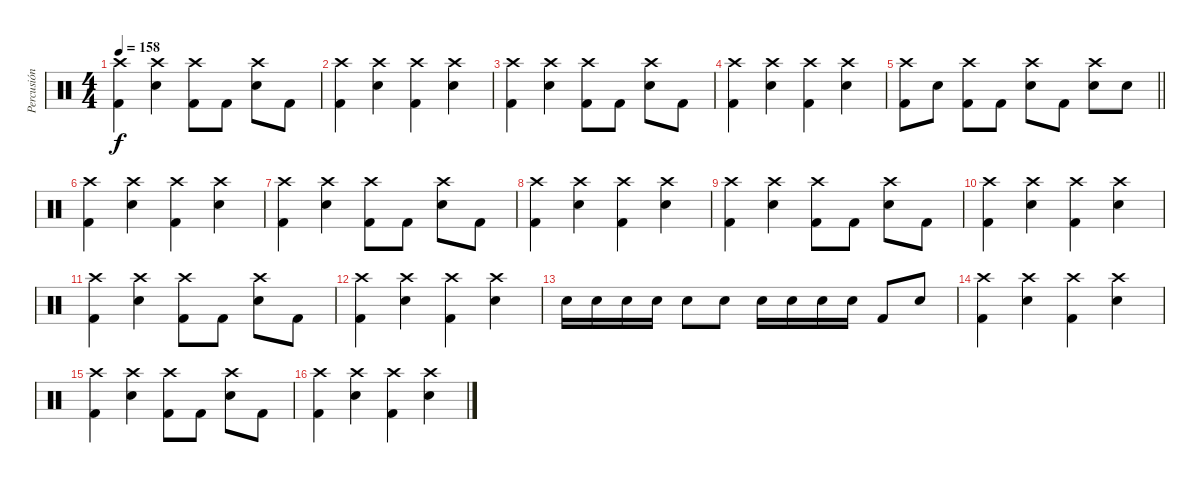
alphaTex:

\track ("Percusión" "Percusión") {instrument percussion}
\staff {score}
\articulation defaults
\ts (4 4)
\tempo 158
\clef neutral
\ks c
("Crash high (hit)" "Kick (hit) 2").4{dy f} ("Crash high (hit)" "Snare (hit) 2").4 ("Crash high (hit)" "Kick (hit) 2").8 "Kick (hit) 2".8 ("Crash high (hit)" "Snare (hit) 2").8 "Kick (hit) 2".8 |
("Crash high (hit)" "Kick (hit) 2").4 ("Crash high (hit)" "Snare (hit) 2").4 ("Crash high (hit)" "Kick (hit) 2").4 ("Crash high (hit)" "Snare (hit) 2").4 |
("Crash high (hit)" "Kick (hit) 2").4 ("Crash high (hit)" "Snare (hit) 2").4 ("Crash high (hit)" "Kick (hit) 2").8 "Kick (hit) 2".8 ("Crash high (hit)" "Snare (hit) 2").8 "Kick (hit) 2".8 |
("Crash high (hit)" "Kick (hit) 2").4 ("Crash high (hit)" "Snare (hit) 2").4 ("Crash high (hit)" "Kick (hit) 2").4 ("Crash high (hit)" "Snare (hit) 2").4 |
\barLineRight lightlight
("Crash high (hit)" "Kick (hit) 2").8 "Snare (hit) 2".8 ("Crash high (hit)" "Kick (hit) 2").8 "Kick (hit) 2".8 ("Crash high (hit)" "Snare (hit) 2").8 "Kick (hit) 2".8 ("Crash high (hit)" "Snare (hit) 2").8 "Snare (hit) 2".8 |
("Crash high (hit)" "Kick (hit) 2").4 ("Crash high (hit)" "Snare (hit) 2").4 ("Crash high (hit)" "Kick (hit) 2").4 ("Crash high (hit)" "Snare (hit) 2").4 |
("Crash high (hit)" "Kick (hit) 2").4 ("Crash high (hit)" "Snare (hit) 2").4 ("Crash high (hit)" "Kick (hit) 2").8 "Kick (hit) 2".8 ("Crash high (hit)" "Snare (hit) 2").8 "Kick (hit) 2".8 |
("Crash high (hit)" "Kick (hit) 2").4 ("Crash high (hit)" "Snare (hit) 2").4 ("Crash high (hit)" "Kick (hit) 2").4 ("Crash high (hit)" "Snare (hit) 2").4 |
("Crash high (hit)" "Kick (hit) 2").4 ("Crash high (hit)" "Snare (hit) 2").4 ("Crash high (hit)" "Kick (hit) 2").8 "Kick (hit) 2".8 ("Crash high (hit)" "Snare (hit) 2").8 "Kick (hit) 2".8 |
("Crash high (hit)" "Kick (hit) 2").4 ("Crash high (hit)" "Snare (hit) 2").4 ("Crash high (hit)" "Kick (hit) 2").4 ("Crash high (hit)" "Snare (hit) 2").4 |
("Crash high (hit)" "Kick (hit) 2").4 ("Crash high (hit)" "Snare (hit) 2").4 ("Crash high (hit)" "Kick (hit) 2").8 "Kick (hit) 2".8 ("Crash high (hit)" "Snare (hit) 2").8 "Kick (hit) 2".8 |
("Crash high (hit)" "Kick (hit) 2").4 ("Crash high (hit)" "Snare (hit) 2").4 ("Crash high (hit)" "Kick (hit) 2").4 ("Crash high (hit)" "Snare (hit) 2").4 |
"Snare (hit) 2".16 "Snare (hit) 2".16 "Snare (hit) 2".16 "Snare (hit) 2".16 "Snare (hit) 2".8 "Snare (hit) 2".8 "Snare (hit) 2".16 "Snare (hit) 2".16 "Snare (hit) 2".16 "Snare (hit) 2".16 "Kick (hit) 2".8 "Snare (hit) 2".8 |
("Crash high (hit)" "Kick (hit) 2").4{volume 5} ("Crash high (hit)" "Snare (hit) 2").4 ("Crash high (hit)" "Kick (hit) 2").4 ("Crash high (hit)" "Snare (hit) 2").4 |
("Crash high (hit)" "Kick (hit) 2").4 ("Crash high (hit)" "Snare (hit) 2").4 ("Crash high (hit)" "Kick (hit) 2").8 "Kick (hit) 2".8 ("Crash high (hit)" "Snare (hit) 2").8 "Kick (hit) 2".8 |
("Crash high (hit)" "Kick (hit) 2").4 ("Crash high (hit)" "Snare (hit) 2").4 ("Crash high (hit)" "Kick (hit) 2").4 ("Crash high (hit)" "Snare (hit) 2").4
